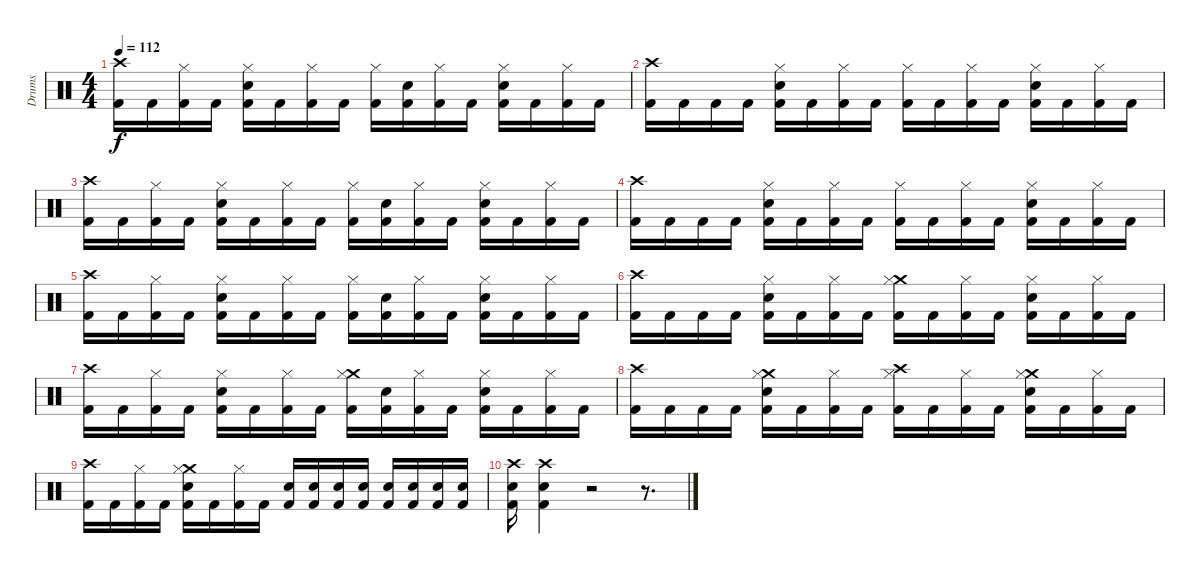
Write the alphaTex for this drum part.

\track ("Drums" "Drums") {instrument percussion}
\staff {score}
\articulation defaults
\ts (4 4)
\tempo 112
\clef neutral
\ks c
("Crash high (hit)" "Kick (hit) 2").16{dy f} "Kick (hit) 2".16 ("Hi-Hat (closed)" "Kick (hit) 2").16 "Kick (hit) 2".16 ("Hi-Hat (closed)" "Snare (hit) 2" "Kick (hit) 2").16 "Kick (hit) 2".16 ("Hi-Hat (closed)" "Kick (hit) 2").16 "Kick (hit) 2".16 ("Hi-Hat (closed)" "Kick (hit) 2").16 ("Snare (hit) 2" "Kick (hit) 2").16 ("Hi-Hat (closed)" "Kick (hit) 2").16 "Kick (hit) 2".16 ("Hi-Hat (closed)" "Snare (hit) 2" "Kick (hit) 2").16 "Kick (hit) 2".16 ("Hi-Hat (closed)" "Kick (hit) 2").16 "Kick (hit) 2".16 |
("Crash high (hit)" "Kick (hit) 2").16 "Kick (hit) 2".16 "Kick (hit) 2".16 "Kick (hit) 2".16 ("Hi-Hat (closed)" "Snare (hit) 2" "Kick (hit) 2").16 "Kick (hit) 2".16 ("Hi-Hat (closed)" "Kick (hit) 2").16 "Kick (hit) 2".16 ("Hi-Hat (closed)" "Kick (hit) 2").16 "Kick (hit) 2".16 ("Hi-Hat (closed)" "Kick (hit) 2").16 "Kick (hit) 2".16 ("Hi-Hat (closed)" "Snare (hit) 2" "Kick (hit) 2").16 "Kick (hit) 2".16 ("Hi-Hat (closed)" "Kick (hit) 2").16 "Kick (hit) 2".16 |
("Crash high (hit)" "Kick (hit) 2").16 "Kick (hit) 2".16 ("Hi-Hat (closed)" "Kick (hit) 2").16 "Kick (hit) 2".16 ("Hi-Hat (closed)" "Snare (hit) 2" "Kick (hit) 2").16 "Kick (hit) 2".16 ("Hi-Hat (closed)" "Kick (hit) 2").16 "Kick (hit) 2".16 ("Hi-Hat (closed)" "Kick (hit) 2").16 ("Snare (hit) 2" "Kick (hit) 2").16 ("Hi-Hat (closed)" "Kick (hit) 2").16 "Kick (hit) 2".16 ("Hi-Hat (closed)" "Snare (hit) 2" "Kick (hit) 2").16 "Kick (hit) 2".16 ("Hi-Hat (closed)" "Kick (hit) 2").16 "Kick (hit) 2".16 |
("Crash high (hit)" "Kick (hit) 2").16 "Kick (hit) 2".16 "Kick (hit) 2".16 "Kick (hit) 2".16 ("Hi-Hat (closed)" "Snare (hit) 2" "Kick (hit) 2").16 "Kick (hit) 2".16 ("Hi-Hat (closed)" "Kick (hit) 2").16 "Kick (hit) 2".16 ("Hi-Hat (closed)" "Kick (hit) 2").16 "Kick (hit) 2".16 ("Hi-Hat (closed)" "Kick (hit) 2").16 "Kick (hit) 2".16 ("Hi-Hat (closed)" "Snare (hit) 2" "Kick (hit) 2").16 "Kick (hit) 2".16 ("Hi-Hat (closed)" "Kick (hit) 2").16 "Kick (hit) 2".16 |
("Crash high (hit)" "Kick (hit) 2").16 "Kick (hit) 2".16 ("Hi-Hat (closed)" "Kick (hit) 2").16 "Kick (hit) 2".16 ("Hi-Hat (closed)" "Snare (hit) 2" "Kick (hit) 2").16 "Kick (hit) 2".16 ("Hi-Hat (closed)" "Kick (hit) 2").16 "Kick (hit) 2".16 ("Hi-Hat (closed)" "Kick (hit) 2").16 ("Snare (hit) 2" "Kick (hit) 2").16 ("Hi-Hat (closed)" "Kick (hit) 2").16 "Kick (hit) 2".16 ("Hi-Hat (closed)" "Snare (hit) 2" "Kick (hit) 2").16 "Kick (hit) 2".16 ("Hi-Hat (closed)" "Kick (hit) 2").16 "Kick (hit) 2".16 |
("Crash high (hit)" "Kick (hit) 2").16 "Kick (hit) 2".16 "Kick (hit) 2".16 "Kick (hit) 2".16 ("Hi-Hat (closed)" "Snare (hit) 2" "Kick (hit) 2").16 "Kick (hit) 2".16 ("Hi-Hat (closed)" "Kick (hit) 2").16 "Kick (hit) 2".16 ("Crash medium (hit)" "Hi-Hat (closed)" "Kick (hit) 2").16 "Kick (hit) 2".16 ("Hi-Hat (closed)" "Kick (hit) 2").16 "Kick (hit) 2".16 ("Hi-Hat (closed)" "Snare (hit) 2" "Kick (hit) 2").16 "Kick (hit) 2".16 ("Hi-Hat (closed)" "Kick (hit) 2").16 "Kick (hit) 2".16 |
("Crash high (hit)" "Kick (hit) 2").16 "Kick (hit) 2".16 ("Hi-Hat (closed)" "Kick (hit) 2").16 "Kick (hit) 2".16 ("Hi-Hat (closed)" "Snare (hit) 2" "Kick (hit) 2").16 "Kick (hit) 2".16 ("Hi-Hat (closed)" "Kick (hit) 2").16 "Kick (hit) 2".16 ("Crash medium (hit)" "Hi-Hat (closed)" "Kick (hit) 2").16 ("Snare (hit) 2" "Kick (hit) 2").16 ("Hi-Hat (closed)" "Kick (hit) 2").16 "Kick (hit) 2".16 ("Hi-Hat (closed)" "Snare (hit) 2" "Kick (hit) 2").16 "Kick (hit) 2".16 ("Hi-Hat (closed)" "Kick (hit) 2").16 "Kick (hit) 2".16 |
("Crash high (hit)" "Kick (hit) 2").16 "Kick (hit) 2".16 "Kick (hit) 2".16 "Kick (hit) 2".16 ("Crash medium (hit)" "Hi-Hat (closed)" "Snare (hit) 2" "Kick (hit) 2").16 "Kick (hit) 2".16 ("Hi-Hat (closed)" "Kick (hit) 2").16 "Kick (hit) 2".16 ("Crash high (hit)" "Hi-Hat (closed)" "Kick (hit) 2").16 "Kick (hit) 2".16 ("Hi-Hat (closed)" "Kick (hit) 2").16 "Kick (hit) 2".16 ("Crash medium (hit)" "Hi-Hat (closed)" "Snare (hit) 2" "Kick (hit) 2").16 "Kick (hit) 2".16 ("Hi-Hat (closed)" "Kick (hit) 2").16 "Kick (hit) 2".16 |
("Crash high (hit)" "Kick (hit) 2").16 "Kick (hit) 2".16 ("Hi-Hat (closed)" "Kick (hit) 2").16 "Kick (hit) 2".16 ("Crash medium (hit)" "Hi-Hat (closed)" "Snare (hit) 2" "Kick (hit) 2").16 "Kick (hit) 2".16 ("Hi-Hat (closed)" "Kick (hit) 2").16 "Kick (hit) 2".16 ("Snare (hit) 2" "Kick (hit) 2").16 ("Snare (hit) 2" "Kick (hit) 2").16 ("Snare (hit) 2" "Kick (hit) 2").16 ("Snare (hit) 2" "Kick (hit) 2").16 ("Snare (hit) 2" "Kick (hit) 2").16 ("Snare (hit) 2" "Kick (hit) 2").16 ("Snare (hit) 2" "Kick (hit) 2").16 ("Snare (hit) 2" "Kick (hit) 2").16 |
("Crash high (hit)" "Snare (hit) 2" "Kick (hit) 2").16 ("Crash high (hit)" "Snare (hit) 2" "Kick (hit) 2").4 r.2 r.8{d}
